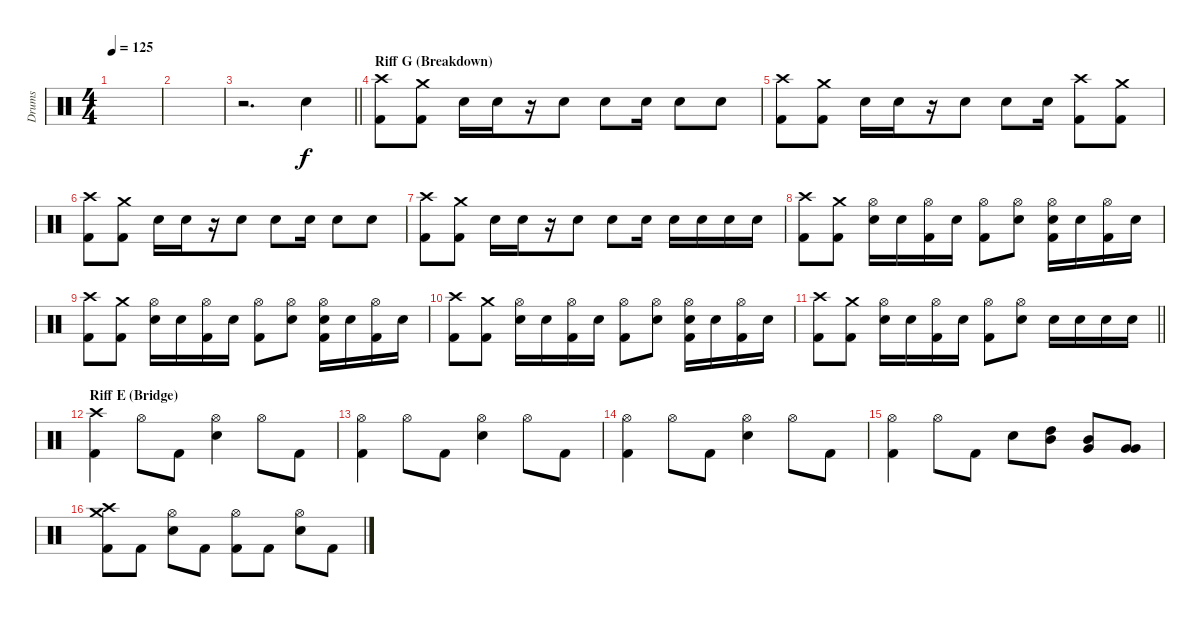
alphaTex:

\track ("Drums" "Drums") {instrument percussion}
\staff {score}
\articulation defaults
\ts (4 4)
\tempo 125
\clef neutral
\ks c
|
|
\barLineRight lightlight
r.2{d} "Snare (hit) 2".4 |
\section ("" "Riff G (Breakdown)")
("Crash high (hit)" "Kick (hit) 2").8 ("Crash medium (hit)" "Kick (hit) 2").8 "Snare (hit) 2".16 "Snare (hit) 2".16 r.16 "Snare (hit) 2".8 "Snare (hit) 2".8 "Snare (hit) 2".16 "Snare (hit) 2".8 "Snare (hit) 2".8 |
("Crash high (hit)" "Kick (hit) 2").8 ("Crash medium (hit)" "Kick (hit) 2").8 "Snare (hit) 2".16 "Snare (hit) 2".16 r.16 "Snare (hit) 2".8 "Snare (hit) 2".8 "Snare (hit) 2".16 ("Crash high (hit)" "Kick (hit) 2").8 ("Crash medium (hit)" "Kick (hit) 2").8 |
("Crash high (hit)" "Kick (hit) 2").8 ("Crash medium (hit)" "Kick (hit) 2").8 "Snare (hit) 2".16 "Snare (hit) 2".16 r.16 "Snare (hit) 2".8 "Snare (hit) 2".8 "Snare (hit) 2".16 "Snare (hit) 2".8 "Snare (hit) 2".8 |
("Crash high (hit)" "Kick (hit) 2").8 ("Crash medium (hit)" "Kick (hit) 2").8 "Snare (hit) 2".16 "Snare (hit) 2".16 r.16 "Snare (hit) 2".8 "Snare (hit) 2".8 "Snare (hit) 2".16 "Snare (hit) 2".16 "Snare (hit) 2".16 "Snare (hit) 2".16 "Snare (hit) 2".16 |
("Crash high (hit)" "Kick (hit) 2").8 ("Crash medium (hit)" "Kick (hit) 2").8 ("Hi-Hat (open)" "Snare (hit) 2").16 "Snare (hit) 2".16 ("Hi-Hat (open)" "Kick (hit) 2").16 "Snare (hit) 2".16 ("Hi-Hat (open)" "Kick (hit) 2").8 ("Hi-Hat (open)" "Snare (hit) 2").8 ("Hi-Hat (open)" "Snare (hit) 2" "Kick (hit) 2").16 "Snare (hit) 2".16 ("Hi-Hat (open)" "Kick (hit) 2").16 "Snare (hit) 2".16 |
("Crash high (hit)" "Kick (hit) 2").8 ("Crash medium (hit)" "Kick (hit) 2").8 ("Hi-Hat (open)" "Snare (hit) 2").16 "Snare (hit) 2".16 ("Hi-Hat (open)" "Kick (hit) 2").16 "Snare (hit) 2".16 ("Hi-Hat (open)" "Kick (hit) 2").8 ("Hi-Hat (open)" "Snare (hit) 2").8 ("Hi-Hat (open)" "Snare (hit) 2" "Kick (hit) 2").16 "Snare (hit) 2".16 ("Hi-Hat (open)" "Kick (hit) 2").16 "Snare (hit) 2".16 |
("Crash high (hit)" "Kick (hit) 2").8 ("Crash medium (hit)" "Kick (hit) 2").8 ("Hi-Hat (open)" "Snare (hit) 2").16 "Snare (hit) 2".16 ("Hi-Hat (open)" "Kick (hit) 2").16 "Snare (hit) 2".16 ("Hi-Hat (open)" "Kick (hit) 2").8 ("Hi-Hat (open)" "Snare (hit) 2").8 ("Hi-Hat (open)" "Snare (hit) 2" "Kick (hit) 2").16 "Snare (hit) 2".16 ("Hi-Hat (open)" "Kick (hit) 2").16 "Snare (hit) 2".16 |
\barLineRight lightlight
("Crash high (hit)" "Kick (hit) 2").8 ("Crash medium (hit)" "Kick (hit) 2").8 ("Hi-Hat (open)" "Snare (hit) 2").16 "Snare (hit) 2".16 ("Hi-Hat (open)" "Kick (hit) 2").16 "Snare (hit) 2".16 ("Hi-Hat (open)" "Kick (hit) 2").8 ("Hi-Hat (open)" "Snare (hit) 2").8 "Snare (hit) 2".16 "Snare (hit) 2".16 "Snare (hit) 2".16 "Snare (hit) 2".16 |
\section ("" "Riff E (Bridge)")
("Crash high (hit)" "Kick (hit) 2").4 "Hi-Hat (open)".8 "Kick (hit) 2".8 ("Hi-Hat (open)" "Snare (hit) 2").4 "Hi-Hat (open)".8 "Kick (hit) 2".8 |
("Hi-Hat (open)" "Kick (hit) 2").4 "Hi-Hat (open)".8 "Kick (hit) 2".8 ("Hi-Hat (open)" "Snare (hit) 2").4 "Hi-Hat (open)".8 "Kick (hit) 2".8 |
("Hi-Hat (open)" "Kick (hit) 2").4 "Hi-Hat (open)".8 "Kick (hit) 2".8 ("Hi-Hat (open)" "Snare (hit) 2").4 "Hi-Hat (open)".8 "Kick (hit) 2".8 |
("Hi-Hat (open)" "Kick (hit) 2").4 "Hi-Hat (open)".8 "Kick (hit) 2".8 "Snare (hit) 2".8 ("High Tom (hit)" "Mid Tom (hit)").8 ("Mid Tom (hit)" "Very Low Tom (hit)").8 ("Very Low Tom (hit)" "Very Low Tom (hit)").8 |
("Crash high (hit)" "Crash medium (hit)" "Kick (hit) 2").8 "Kick (hit) 2".8 ("Hi-Hat (open)" "Snare (hit) 2").8 "Kick (hit) 2".8 ("Hi-Hat (open)" "Kick (hit) 2").8 "Kick (hit) 2".8 ("Hi-Hat (open)" "Snare (hit) 2").8 "Kick (hit) 2".8
